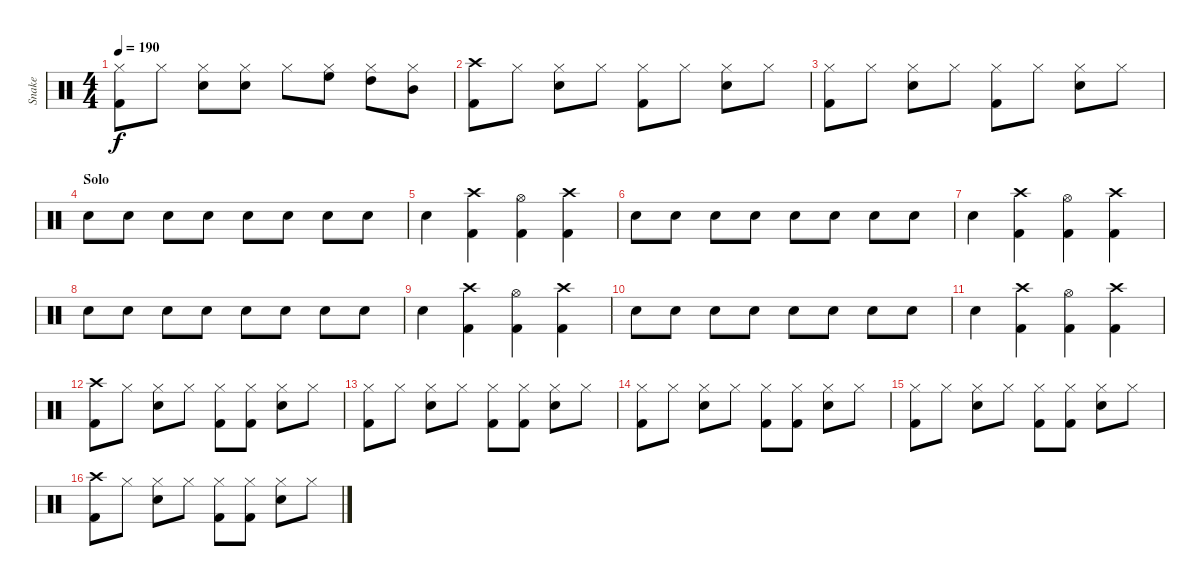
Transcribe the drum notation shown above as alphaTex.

\track ("Snake" "Snake") {instrument percussion}
\staff {score}
\articulation defaults
\ts (4 4)
\tempo 190
\clef neutral
\ks c
("Hi-Hat (closed)" "Kick (hit) 2").8{dy f} "Hi-Hat (closed)".8 ("Hi-Hat (closed)" "Snare (hit) 2").8 ("Hi-Hat (closed)" "Snare (hit) 2").8 "Hi-Hat (closed)".8 ("Hi-Hat (closed)" "High Floor Tom (hit)").8 ("Hi-Hat (closed)" "High Tom (hit)").8 ("Hi-Hat (closed)" "Mid Tom (hit)").8 |
("Crash high (hit)" "Kick (hit) 2").8 "Hi-Hat (closed)".8 ("Hi-Hat (closed)" "Snare (hit) 2").8 "Hi-Hat (closed)".8 ("Hi-Hat (closed)" "Kick (hit) 2").8 "Hi-Hat (closed)".8 ("Hi-Hat (closed)" "Snare (hit) 2").8 "Hi-Hat (closed)".8 |
("Hi-Hat (closed)" "Kick (hit) 2").8 "Hi-Hat (closed)".8 ("Hi-Hat (closed)" "Snare (hit) 2").8 "Hi-Hat (closed)".8 ("Hi-Hat (closed)" "Kick (hit) 2").8 "Hi-Hat (closed)".8 ("Hi-Hat (closed)" "Snare (hit) 2").8 "Hi-Hat (closed)".8 |
\section ("" "Solo")
"Snare (hit) 2".8 "Snare (hit) 2".8 "Snare (hit) 2".8 "Snare (hit) 2".8 "Snare (hit) 2".8 "Snare (hit) 2".8 "Snare (hit) 2".8 "Snare (hit) 2".8 |
"Snare (hit) 2".4 ("Crash high (hit)" "Kick (hit) 2").4 ("Hi-Hat (open)" "Kick (hit) 2").4 ("Crash high (hit)" "Kick (hit) 2").4 |
"Snare (hit) 2".8 "Snare (hit) 2".8 "Snare (hit) 2".8 "Snare (hit) 2".8 "Snare (hit) 2".8 "Snare (hit) 2".8 "Snare (hit) 2".8 "Snare (hit) 2".8 |
"Snare (hit) 2".4 ("Crash high (hit)" "Kick (hit) 2").4 ("Hi-Hat (open)" "Kick (hit) 2").4 ("Crash high (hit)" "Kick (hit) 2").4 |
"Snare (hit) 2".8 "Snare (hit) 2".8 "Snare (hit) 2".8 "Snare (hit) 2".8 "Snare (hit) 2".8 "Snare (hit) 2".8 "Snare (hit) 2".8 "Snare (hit) 2".8 |
"Snare (hit) 2".4 ("Crash high (hit)" "Kick (hit) 2").4 ("Hi-Hat (open)" "Kick (hit) 2").4 ("Crash high (hit)" "Kick (hit) 2").4 |
"Snare (hit) 2".8 "Snare (hit) 2".8 "Snare (hit) 2".8 "Snare (hit) 2".8 "Snare (hit) 2".8 "Snare (hit) 2".8 "Snare (hit) 2".8 "Snare (hit) 2".8 |
"Snare (hit) 2".4 ("Crash high (hit)" "Kick (hit) 2").4 ("Hi-Hat (open)" "Kick (hit) 2").4 ("Crash high (hit)" "Kick (hit) 2").4 |
("Crash high (hit)" "Kick (hit) 2").8 "Hi-Hat (closed)".8 ("Hi-Hat (closed)" "Snare (hit) 2").8 "Hi-Hat (closed)".8 ("Hi-Hat (closed)" "Kick (hit) 2").8 ("Hi-Hat (closed)" "Kick (hit) 2").8 ("Hi-Hat (closed)" "Snare (hit) 2").8 "Hi-Hat (closed)".8 |
("Hi-Hat (closed)" "Kick (hit) 2").8 "Hi-Hat (closed)".8 ("Hi-Hat (closed)" "Snare (hit) 2").8 "Hi-Hat (closed)".8 ("Hi-Hat (closed)" "Kick (hit) 2").8 ("Hi-Hat (closed)" "Kick (hit) 2").8 ("Hi-Hat (closed)" "Snare (hit) 2").8 "Hi-Hat (closed)".8 |
("Hi-Hat (closed)" "Kick (hit) 2").8 "Hi-Hat (closed)".8 ("Hi-Hat (closed)" "Snare (hit) 2").8 "Hi-Hat (closed)".8 ("Hi-Hat (closed)" "Kick (hit) 2").8 ("Hi-Hat (closed)" "Kick (hit) 2").8 ("Hi-Hat (closed)" "Snare (hit) 2").8 "Hi-Hat (closed)".8 |
("Hi-Hat (closed)" "Kick (hit) 2").8 "Hi-Hat (closed)".8 ("Hi-Hat (closed)" "Snare (hit) 2").8 "Hi-Hat (closed)".8 ("Hi-Hat (closed)" "Kick (hit) 2").8 ("Hi-Hat (closed)" "Kick (hit) 2").8 ("Hi-Hat (closed)" "Snare (hit) 2").8 "Hi-Hat (closed)".8 |
("Crash high (hit)" "Kick (hit) 2").8 "Hi-Hat (closed)".8 ("Hi-Hat (closed)" "Snare (hit) 2").8 "Hi-Hat (closed)".8 ("Hi-Hat (closed)" "Kick (hit) 2").8 ("Hi-Hat (closed)" "Kick (hit) 2").8 ("Hi-Hat (closed)" "Snare (hit) 2").8 "Hi-Hat (closed)".8
